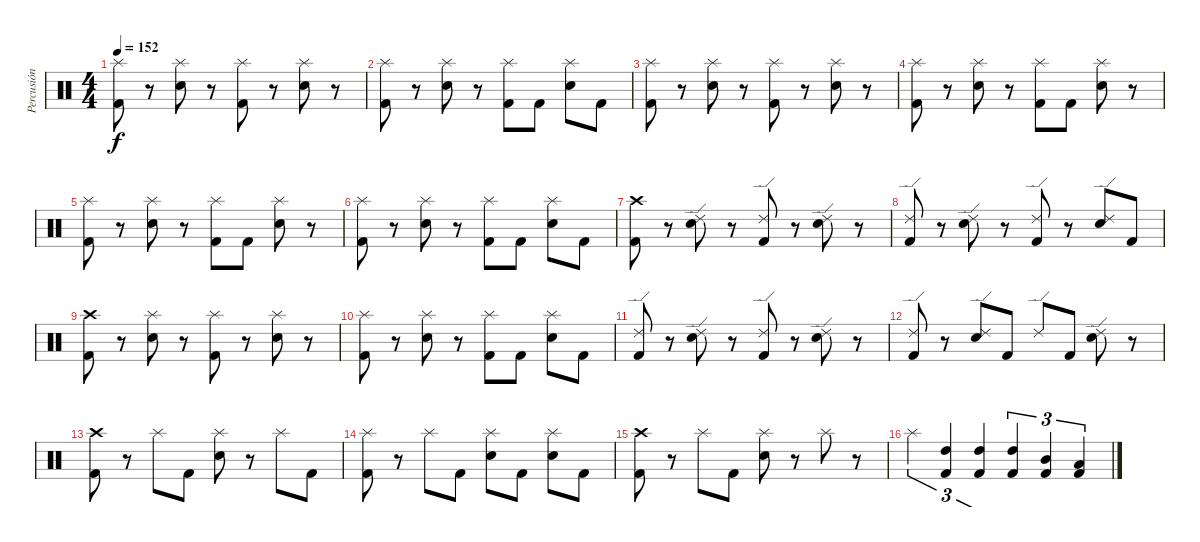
\track ("Percusión" "Percusión") {instrument percussion}
\staff {score}
\articulation defaults
\ts (4 4)
\tempo 152
\clef neutral
\ks c
("Splash (hit)" "Kick (hit) 2").8{dy f} r.8 ("Splash (hit)" "Snare (hit) 2").8 r.8 ("Splash (hit)" "Kick (hit) 2").8 r.8 ("Splash (hit)" "Snare (hit) 2").8 r.8 |
("Splash (hit)" "Kick (hit) 2").8 r.8 ("Splash (hit)" "Snare (hit) 2").8 r.8 ("Splash (hit)" "Kick (hit) 2").8 "Kick (hit) 2".8 ("Splash (hit)" "Snare (hit) 2").8 "Kick (hit) 2".8 |
("Splash (hit)" "Kick (hit) 2").8 r.8 ("Splash (hit)" "Snare (hit) 2").8 r.8 ("Splash (hit)" "Kick (hit) 2").8 r.8 ("Splash (hit)" "Snare (hit) 2").8 r.8 |
("Splash (hit)" "Kick (hit) 2").8 r.8 ("Splash (hit)" "Snare (hit) 2").8 r.8 ("Splash (hit)" "Kick (hit) 2").8 "Kick (hit) 2".8 ("Splash (hit)" "Snare (hit) 2").8 r.8 |
("Splash (hit)" "Kick (hit) 2").8 r.8 ("Splash (hit)" "Snare (hit) 2").8 r.8 ("Splash (hit)" "Kick (hit) 2").8 "Kick (hit) 2".8 ("Splash (hit)" "Snare (hit) 2").8 r.8 |
("Splash (hit)" "Kick (hit) 2").8 r.8 ("Splash (hit)" "Snare (hit) 2").8 r.8 ("Splash (hit)" "Kick (hit) 2").8 "Kick (hit) 2".8 ("Splash (hit)" "Snare (hit) 2").8 "Kick (hit) 2".8 |
("Crash high (hit)" "Kick (hit) 2").8 r.8 ("Ride (edge) 2" "Snare (hit) 2").8 r.8 ("Ride (edge) 2" "Kick (hit) 2").8 r.8 ("Ride (edge) 2" "Snare (hit) 2").8 r.8 |
("Ride (edge) 2" "Kick (hit) 2").8 r.8 ("Ride (edge) 2" "Snare (hit) 2").8 r.8 ("Ride (edge) 2" "Kick (hit) 2").8 r.8 ("Ride (edge) 2" "Snare (hit) 2").8 "Kick (hit) 2".8 |
("Crash high (hit)" "Kick (hit) 2").8 r.8 ("Splash (hit)" "Snare (hit) 2").8 r.8 ("Splash (hit)" "Kick (hit) 2").8 r.8 ("Splash (hit)" "Snare (hit) 2").8 r.8 |
("Splash (hit)" "Kick (hit) 2").8 r.8 ("Splash (hit)" "Snare (hit) 2").8 r.8 ("Splash (hit)" "Kick (hit) 2").8 "Kick (hit) 2".8 ("Splash (hit)" "Snare (hit) 2").8 "Kick (hit) 2".8 |
("Ride (edge) 2" "Kick (hit) 2").8 r.8 ("Ride (edge) 2" "Snare (hit) 2").8 r.8 ("Ride (edge) 2" "Kick (hit) 2").8 r.8 ("Ride (edge) 2" "Snare (hit) 2").8 r.8 |
("Ride (edge) 2" "Kick (hit) 2").8 r.8 ("Ride (edge) 2" "Snare (hit) 2").8 "Kick (hit) 2".8 "Ride (edge) 2".8 "Kick (hit) 2".8 ("Ride (edge) 2" "Snare (hit) 2").8 r.8 |
("Crash high (hit)" "Kick (hit) 2").8 r.8 "Splash (hit)".8 "Kick (hit) 2".8 ("Splash (hit)" "Snare (hit) 2").8 r.8 "Splash (hit)".8 "Kick (hit) 2".8 |
("Splash (hit)" "Kick (hit) 2").8 r.8 "Splash (hit)".8 "Kick (hit) 2".8 ("Splash (hit)" "Snare (hit) 2").8 "Kick (hit) 2".8 ("Splash (hit)" "Snare (hit) 2").8 "Kick (hit) 2".8 |
("Crash high (hit)" "Kick (hit) 2").8 r.8 "Splash (hit)".8 "Kick (hit) 2".8 ("Splash (hit)" "Snare (hit) 2").8 r.8 "Splash (hit)".8 r.8 |
"Splash (hit)".4{tu (3 2)} ("High Tom (hit)" "Kick (hit) 2").4{tu (3 2)} ("High Tom (hit)" "Kick (hit) 2").4{tu (3 2)} ("High Tom (hit)" "Kick (hit) 2").4{tu (3 2)} ("Mid Tom (hit)" "Kick (hit) 2").4{tu (3 2)} ("Low Tom (hit)" "Kick (hit) 2").4{tu (3 2)}
